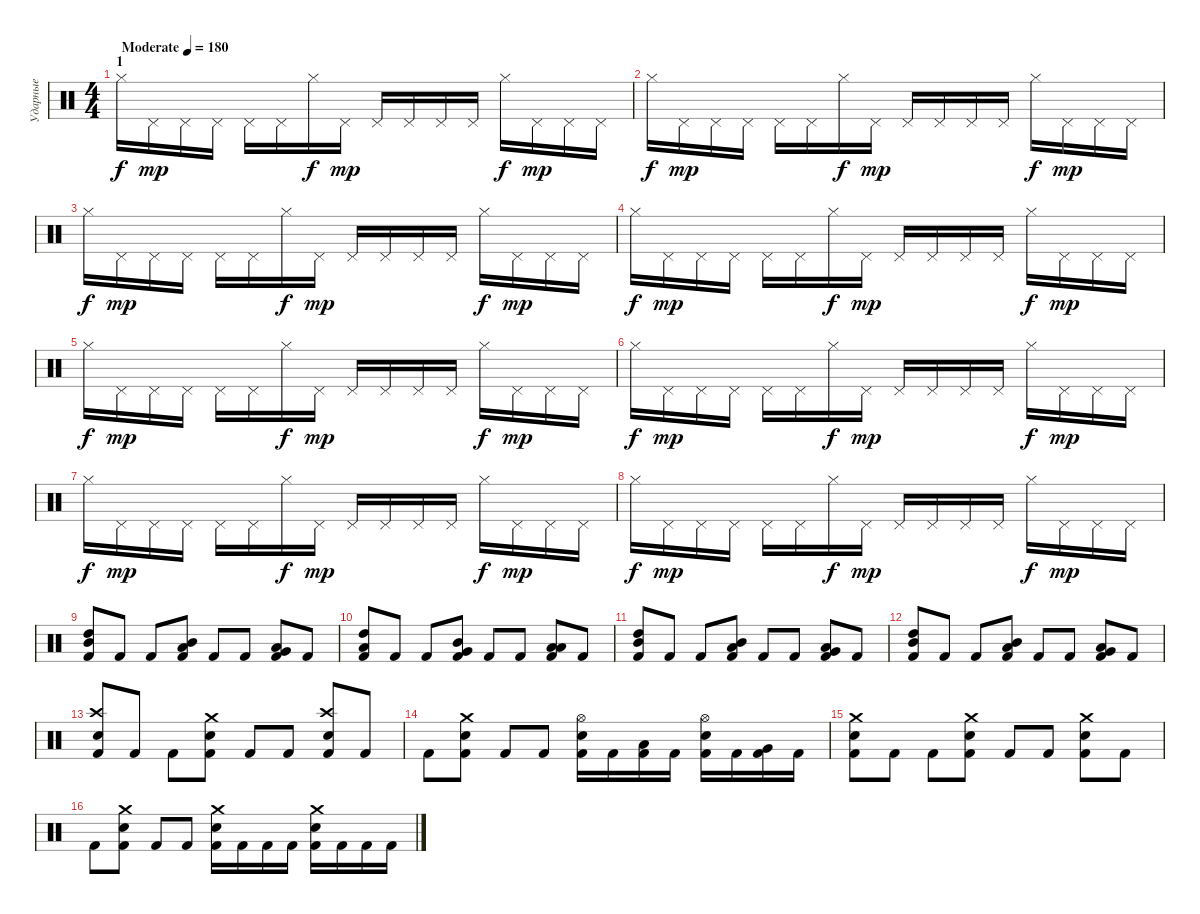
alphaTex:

\track ("Ударные" "Ударные") {instrument percussion}
\staff {score}
\articulation defaults
\ts (4 4)
\section ("" "1")
\tempo (180 "Moderate")
\clef neutral
\ks c "Hi-Hat (closed)".16{dy f} "Pedal Hi-Hat (hit)".16{dy mp} "Pedal Hi-Hat (hit)".16 "Pedal Hi-Hat (hit)".16 "Pedal Hi-Hat (hit)".16 "Pedal Hi-Hat (hit)".16 "Hi-Hat (closed)".16{dy f} "Pedal Hi-Hat (hit)".16{dy mp} "Pedal Hi-Hat (hit)".16 "Pedal Hi-Hat (hit)".16 "Pedal Hi-Hat (hit)".16 "Pedal Hi-Hat (hit)".16 "Hi-Hat (closed)".16{dy f} "Pedal Hi-Hat (hit)".16{dy mp} "Pedal Hi-Hat (hit)".16 "Pedal Hi-Hat (hit)".16
|
"Hi-Hat (closed)".16{dy f} "Pedal Hi-Hat (hit)".16{dy mp} "Pedal Hi-Hat (hit)".16 "Pedal Hi-Hat (hit)".16 "Pedal Hi-Hat (hit)".16 "Pedal Hi-Hat (hit)".16 "Hi-Hat (closed)".16{dy f} "Pedal Hi-Hat (hit)".16{dy mp} "Pedal Hi-Hat (hit)".16 "Pedal Hi-Hat (hit)".16 "Pedal Hi-Hat (hit)".16 "Pedal Hi-Hat (hit)".16 "Hi-Hat (closed)".16{dy f} "Pedal Hi-Hat (hit)".16{dy mp} "Pedal Hi-Hat (hit)".16 "Pedal Hi-Hat (hit)".16 |
"Hi-Hat (closed)".16{dy f} "Pedal Hi-Hat (hit)".16{dy mp} "Pedal Hi-Hat (hit)".16 "Pedal Hi-Hat (hit)".16 "Pedal Hi-Hat (hit)".16 "Pedal Hi-Hat (hit)".16 "Hi-Hat (closed)".16{dy f} "Pedal Hi-Hat (hit)".16{dy mp} "Pedal Hi-Hat (hit)".16 "Pedal Hi-Hat (hit)".16 "Pedal Hi-Hat (hit)".16 "Pedal Hi-Hat (hit)".16 "Hi-Hat (closed)".16{dy f} "Pedal Hi-Hat (hit)".16{dy mp} "Pedal Hi-Hat (hit)".16 "Pedal Hi-Hat (hit)".16 |
"Hi-Hat (closed)".16{dy f} "Pedal Hi-Hat (hit)".16{dy mp} "Pedal Hi-Hat (hit)".16 "Pedal Hi-Hat (hit)".16 "Pedal Hi-Hat (hit)".16 "Pedal Hi-Hat (hit)".16 "Hi-Hat (closed)".16{dy f} "Pedal Hi-Hat (hit)".16{dy mp} "Pedal Hi-Hat (hit)".16 "Pedal Hi-Hat (hit)".16 "Pedal Hi-Hat (hit)".16 "Pedal Hi-Hat (hit)".16 "Hi-Hat (closed)".16{dy f} "Pedal Hi-Hat (hit)".16{dy mp} "Pedal Hi-Hat (hit)".16 "Pedal Hi-Hat (hit)".16 |
"Hi-Hat (closed)".16{dy f} "Pedal Hi-Hat (hit)".16{dy mp} "Pedal Hi-Hat (hit)".16 "Pedal Hi-Hat (hit)".16 "Pedal Hi-Hat (hit)".16 "Pedal Hi-Hat (hit)".16 "Hi-Hat (closed)".16{dy f} "Pedal Hi-Hat (hit)".16{dy mp} "Pedal Hi-Hat (hit)".16 "Pedal Hi-Hat (hit)".16 "Pedal Hi-Hat (hit)".16 "Pedal Hi-Hat (hit)".16 "Hi-Hat (closed)".16{dy f} "Pedal Hi-Hat (hit)".16{dy mp} "Pedal Hi-Hat (hit)".16 "Pedal Hi-Hat (hit)".16 |
"Hi-Hat (closed)".16{dy f} "Pedal Hi-Hat (hit)".16{dy mp} "Pedal Hi-Hat (hit)".16 "Pedal Hi-Hat (hit)".16 "Pedal Hi-Hat (hit)".16 "Pedal Hi-Hat (hit)".16 "Hi-Hat (closed)".16{dy f} "Pedal Hi-Hat (hit)".16{dy mp} "Pedal Hi-Hat (hit)".16 "Pedal Hi-Hat (hit)".16 "Pedal Hi-Hat (hit)".16 "Pedal Hi-Hat (hit)".16 "Hi-Hat (closed)".16{dy f} "Pedal Hi-Hat (hit)".16{dy mp} "Pedal Hi-Hat (hit)".16 "Pedal Hi-Hat (hit)".16 |
"Hi-Hat (closed)".16{dy f} "Pedal Hi-Hat (hit)".16{dy mp} "Pedal Hi-Hat (hit)".16 "Pedal Hi-Hat (hit)".16 "Pedal Hi-Hat (hit)".16 "Pedal Hi-Hat (hit)".16 "Hi-Hat (closed)".16{dy f} "Pedal Hi-Hat (hit)".16{dy mp} "Pedal Hi-Hat (hit)".16 "Pedal Hi-Hat (hit)".16 "Pedal Hi-Hat (hit)".16 "Pedal Hi-Hat (hit)".16 "Hi-Hat (closed)".16{dy f} "Pedal Hi-Hat (hit)".16{dy mp} "Pedal Hi-Hat (hit)".16 "Pedal Hi-Hat (hit)".16 |
"Hi-Hat (closed)".16{dy f} "Pedal Hi-Hat (hit)".16{dy mp} "Pedal Hi-Hat (hit)".16 "Pedal Hi-Hat (hit)".16 "Pedal Hi-Hat (hit)".16 "Pedal Hi-Hat (hit)".16 "Hi-Hat (closed)".16{dy f} "Pedal Hi-Hat (hit)".16{dy mp} "Pedal Hi-Hat (hit)".16 "Pedal Hi-Hat (hit)".16 "Pedal Hi-Hat (hit)".16 "Pedal Hi-Hat (hit)".16 "Hi-Hat (closed)".16{dy f} "Pedal Hi-Hat (hit)".16{dy mp} "Pedal Hi-Hat (hit)".16 "Pedal Hi-Hat (hit)".16 |
("High Tom (hit)" "Mid Tom (hit)" "Kick (hit) 2").8 "Kick (hit) 2".8 "Kick (hit) 2".8 ("Mid Tom (hit)" "Low Tom (hit)" "Kick (hit) 2").8 "Kick (hit) 2".8 "Kick (hit) 2".8 ("Low Tom (hit)" "Very Low Tom (hit)" "Kick (hit) 2").8 "Kick (hit) 2".8 |
("High Tom (hit)" "Low Tom (hit)" "Kick (hit) 2").8 "Kick (hit) 2".8 "Kick (hit) 2".8 ("Mid Tom (hit)" "Very Low Tom (hit)" "Kick (hit) 2").8 "Kick (hit) 2".8 "Kick (hit) 2".8 ("Low Tom (hit)" "Low Floor Tom (hit)" "Kick (hit) 2").8 "Kick (hit) 2".8 |
("High Tom (hit)" "Mid Tom (hit)" "Kick (hit) 2").8 "Kick (hit) 2".8 "Kick (hit) 2".8 ("Mid Tom (hit)" "Low Tom (hit)" "Kick (hit) 2").8 "Kick (hit) 2".8 "Kick (hit) 2".8 ("Low Tom (hit)" "Very Low Tom (hit)" "Kick (hit) 2").8 "Kick (hit) 2".8 |
("High Tom (hit)" "Mid Tom (hit)" "Kick (hit) 2").8 "Kick (hit) 2".8 "Kick (hit) 2".8 ("Mid Tom (hit)" "Low Tom (hit)" "Kick (hit) 2").8 "Kick (hit) 2".8 "Kick (hit) 2".8 ("Low Tom (hit)" "Very Low Tom (hit)" "Kick (hit) 2").8 "Kick (hit) 2".8 |
("Crash high (hit)" "Snare (hit) 2" "Kick (hit) 2").8 "Kick (hit) 2".8 "Kick (hit) 2".8 ("Crash medium (hit)" "Snare (hit) 2" "Kick (hit) 2").8 "Kick (hit) 2".8 "Kick (hit) 2".8 ("Crash high (hit)" "Snare (hit) 2" "Kick (hit) 2").8 "Kick (hit) 2".8 |
"Kick (hit) 2".8 ("Crash medium (hit)" "Snare (hit) 2" "Kick (hit) 2").8 "Kick (hit) 2".8 "Kick (hit) 2".8 ("Hi-Hat (open)" "Snare (hit) 2" "Kick (hit) 2").16 "Kick (hit) 2".16 ("Low Tom (hit)" "Kick (hit) 2").16 "Kick (hit) 2".16 ("Hi-Hat (open)" "Snare (hit) 2" "Kick (hit) 2").16 "Kick (hit) 2".16 ("Very Low Tom (hit)" "Kick (hit) 2").16 "Kick (hit) 2".16 |
("Crash medium (hit)" "Snare (hit) 2" "Kick (hit) 2").8 "Kick (hit) 2".8 "Kick (hit) 2".8 ("Crash medium (hit)" "Snare (hit) 2" "Kick (hit) 2").8 "Kick (hit) 2".8 "Kick (hit) 2".8 ("Crash medium (hit)" "Snare (hit) 2" "Kick (hit) 2").8 "Kick (hit) 2".8 |
"Kick (hit) 2".8 ("Crash medium (hit)" "Snare (hit) 2" "Kick (hit) 2").8 "Kick (hit) 2".8 "Kick (hit) 2".8 ("Crash medium (hit)" "Snare (hit) 2" "Kick (hit) 2").16 "Kick (hit) 2".16 "Kick (hit) 2".16 "Kick (hit) 2".16 ("Crash medium (hit)" "Snare (hit) 2" "Kick (hit) 2").16 "Kick (hit) 2".16 "Kick (hit) 2".16 "Kick (hit) 2".16
